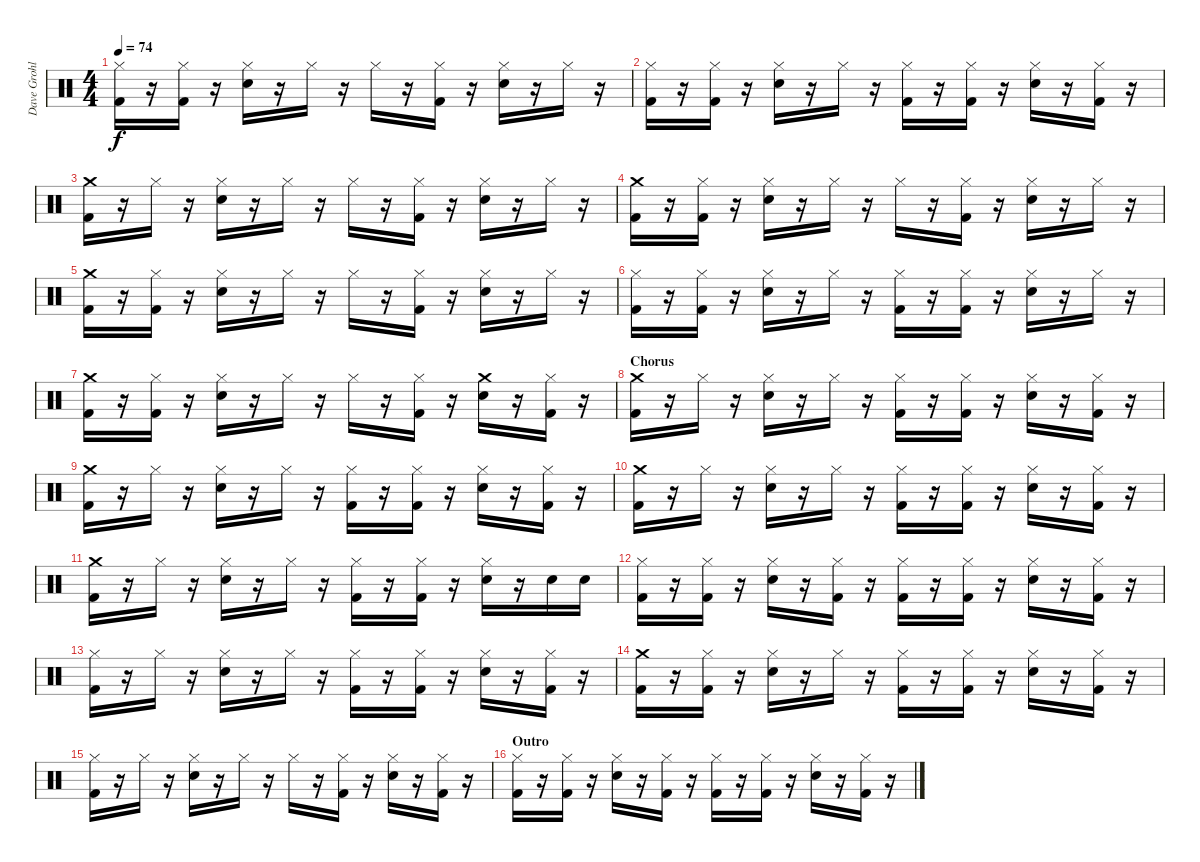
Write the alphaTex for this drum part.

\track ("Dave Grohl" "Dave Grohl") {instrument percussion}
\staff {score}
\articulation defaults
\ts (4 4)
\tempo 74
\clef neutral
\ks c
("Hi-Hat (closed)" "Kick (hit) 2").16{dy f} r.16 ("Hi-Hat (closed)" "Kick (hit) 2").16 r.16 ("Hi-Hat (closed)" "Snare (hit) 2").16 r.16 "Hi-Hat (closed)".16 r.16 "Hi-Hat (closed)".16 r.16 ("Hi-Hat (closed)" "Kick (hit) 2").16 r.16 ("Hi-Hat (closed)" "Snare (hit) 2").16 r.16 "Hi-Hat (closed)".16 r.16 |
("Hi-Hat (closed)" "Kick (hit) 2").16 r.16 ("Hi-Hat (closed)" "Kick (hit) 2").16 r.16 ("Hi-Hat (closed)" "Snare (hit) 2").16 r.16 "Hi-Hat (closed)".16 r.16 ("Hi-Hat (closed)" "Kick (hit) 2").16 r.16 ("Hi-Hat (closed)" "Kick (hit) 2").16 r.16 ("Hi-Hat (closed)" "Snare (hit) 2").16 r.16 ("Hi-Hat (closed)" "Kick (hit) 2").16 r.16 |
("Crash medium (hit)" "Kick (hit) 2").16 r.16 "Hi-Hat (closed)".16 r.16 ("Hi-Hat (closed)" "Snare (hit) 2").16 r.16 "Hi-Hat (closed)".16 r.16 "Hi-Hat (closed)".16 r.16 ("Hi-Hat (closed)" "Kick (hit) 2").16 r.16 ("Hi-Hat (closed)" "Snare (hit) 2").16 r.16 "Hi-Hat (closed)".16 r.16 |
("Crash medium (hit)" "Kick (hit) 2").16 r.16 ("Hi-Hat (closed)" "Kick (hit) 2").16 r.16 ("Hi-Hat (closed)" "Snare (hit) 2").16 r.16 "Hi-Hat (closed)".16 r.16 "Hi-Hat (closed)".16 r.16 ("Hi-Hat (closed)" "Kick (hit) 2").16 r.16 ("Hi-Hat (closed)" "Snare (hit) 2").16 r.16 "Hi-Hat (closed)".16 r.16 |
("Crash medium (hit)" "Kick (hit) 2").16 r.16 ("Hi-Hat (closed)" "Kick (hit) 2").16 r.16 ("Hi-Hat (closed)" "Snare (hit) 2").16 r.16 "Hi-Hat (closed)".16 r.16 "Hi-Hat (closed)".16 r.16 ("Hi-Hat (closed)" "Kick (hit) 2").16 r.16 ("Hi-Hat (closed)" "Snare (hit) 2").16 r.16 "Hi-Hat (closed)".16 r.16 |
("Hi-Hat (closed)" "Kick (hit) 2").16 r.16 ("Hi-Hat (closed)" "Kick (hit) 2").16 r.16 ("Hi-Hat (closed)" "Snare (hit) 2").16 r.16 "Hi-Hat (closed)".16 r.16 ("Hi-Hat (closed)" "Kick (hit) 2").16 r.16 ("Hi-Hat (closed)" "Kick (hit) 2").16 r.16 ("Hi-Hat (closed)" "Snare (hit) 2").16 r.16 "Hi-Hat (closed)".16 r.16 |
("Crash medium (hit)" "Kick (hit) 2").16 r.16 ("Hi-Hat (closed)" "Kick (hit) 2").16 r.16 ("Hi-Hat (closed)" "Snare (hit) 2").16 r.16 "Hi-Hat (closed)".16 r.16 "Hi-Hat (closed)".16 r.16 ("Hi-Hat (closed)" "Kick (hit) 2").16 r.16 ("Crash medium (hit)" "Snare (hit) 2").16 r.16 ("Hi-Hat (closed)" "Kick (hit) 2").16 r.16 |
\section ("" "Chorus")
("Crash medium (hit)" "Kick (hit) 2").16 r.16 "Hi-Hat (closed)".16 r.16 ("Hi-Hat (closed)" "Snare (hit) 2").16 r.16 "Hi-Hat (closed)".16 r.16 ("Hi-Hat (closed)" "Kick (hit) 2").16 r.16 ("Hi-Hat (closed)" "Kick (hit) 2").16 r.16 ("Hi-Hat (closed)" "Snare (hit) 2").16 r.16 ("Hi-Hat (closed)" "Kick (hit) 2").16 r.16 |
("Crash medium (hit)" "Kick (hit) 2").16 r.16 "Hi-Hat (closed)".16 r.16 ("Hi-Hat (closed)" "Snare (hit) 2").16 r.16 "Hi-Hat (closed)".16 r.16 ("Hi-Hat (closed)" "Kick (hit) 2").16 r.16 ("Hi-Hat (closed)" "Kick (hit) 2").16 r.16 ("Hi-Hat (closed)" "Snare (hit) 2").16 r.16 ("Hi-Hat (closed)" "Kick (hit) 2").16 r.16 |
("Crash medium (hit)" "Kick (hit) 2").16 r.16 "Hi-Hat (closed)".16 r.16 ("Hi-Hat (closed)" "Snare (hit) 2").16 r.16 "Hi-Hat (closed)".16 r.16 ("Hi-Hat (closed)" "Kick (hit) 2").16 r.16 ("Hi-Hat (closed)" "Kick (hit) 2").16 r.16 ("Hi-Hat (closed)" "Snare (hit) 2").16 r.16 ("Hi-Hat (closed)" "Kick (hit) 2").16 r.16 |
("Crash medium (hit)" "Kick (hit) 2").16 r.16 "Hi-Hat (closed)".16 r.16 ("Hi-Hat (closed)" "Snare (hit) 2").16 r.16 "Hi-Hat (closed)".16 r.16 ("Hi-Hat (closed)" "Kick (hit) 2").16 r.16 ("Hi-Hat (closed)" "Kick (hit) 2").16 r.16 ("Hi-Hat (closed)" "Snare (hit) 2").16 r.16 "Snare (hit) 2".16 "Snare (hit) 2".16 |
("Hi-Hat (closed)" "Kick (hit) 2").16 r.16 ("Hi-Hat (closed)" "Kick (hit) 2").16 r.16 ("Hi-Hat (closed)" "Snare (hit) 2").16 r.16 ("Hi-Hat (closed)" "Kick (hit) 2").16 r.16 ("Hi-Hat (closed)" "Kick (hit) 2").16 r.16 ("Hi-Hat (closed)" "Kick (hit) 2").16 r.16 ("Hi-Hat (closed)" "Snare (hit) 2").16 r.16 ("Hi-Hat (closed)" "Kick (hit) 2").16 r.16 |
("Hi-Hat (closed)" "Kick (hit) 2").16 r.16 "Hi-Hat (closed)".16 r.16 ("Hi-Hat (closed)" "Snare (hit) 2").16 r.16 "Hi-Hat (closed)".16 r.16 ("Hi-Hat (closed)" "Kick (hit) 2").16 r.16 ("Hi-Hat (closed)" "Kick (hit) 2").16 r.16 ("Hi-Hat (closed)" "Snare (hit) 2").16 r.16 ("Hi-Hat (closed)" "Kick (hit) 2").16 r.16 |
("Crash medium (hit)" "Kick (hit) 2").16 r.16 ("Hi-Hat (closed)" "Kick (hit) 2").16 r.16 ("Hi-Hat (closed)" "Snare (hit) 2").16 r.16 "Hi-Hat (closed)".16 r.16 ("Hi-Hat (closed)" "Kick (hit) 2").16 r.16 ("Hi-Hat (closed)" "Kick (hit) 2").16 r.16 ("Hi-Hat (closed)" "Snare (hit) 2").16 r.16 ("Hi-Hat (closed)" "Kick (hit) 2").16 r.16 |
("Hi-Hat (closed)" "Kick (hit) 2").16 r.16 "Hi-Hat (closed)".16 r.16 ("Hi-Hat (closed)" "Snare (hit) 2").16 r.16 "Hi-Hat (closed)".16 r.16 "Hi-Hat (closed)".16 r.16 ("Hi-Hat (closed)" "Kick (hit) 2").16 r.16 ("Hi-Hat (closed)" "Snare (hit) 2").16 r.16 ("Hi-Hat (closed)" "Kick (hit) 2").16 r.16 |
\section ("" "Outro")
("Hi-Hat (closed)" "Kick (hit) 2").16 r.16 ("Hi-Hat (closed)" "Kick (hit) 2").16 r.16 ("Hi-Hat (closed)" "Snare (hit) 2").16 r.16 ("Hi-Hat (closed)" "Kick (hit) 2").16 r.16 ("Hi-Hat (closed)" "Kick (hit) 2").16 r.16 ("Hi-Hat (closed)" "Kick (hit) 2").16 r.16 ("Hi-Hat (closed)" "Snare (hit) 2").16 r.16 ("Hi-Hat (closed)" "Kick (hit) 2").16 r.16
